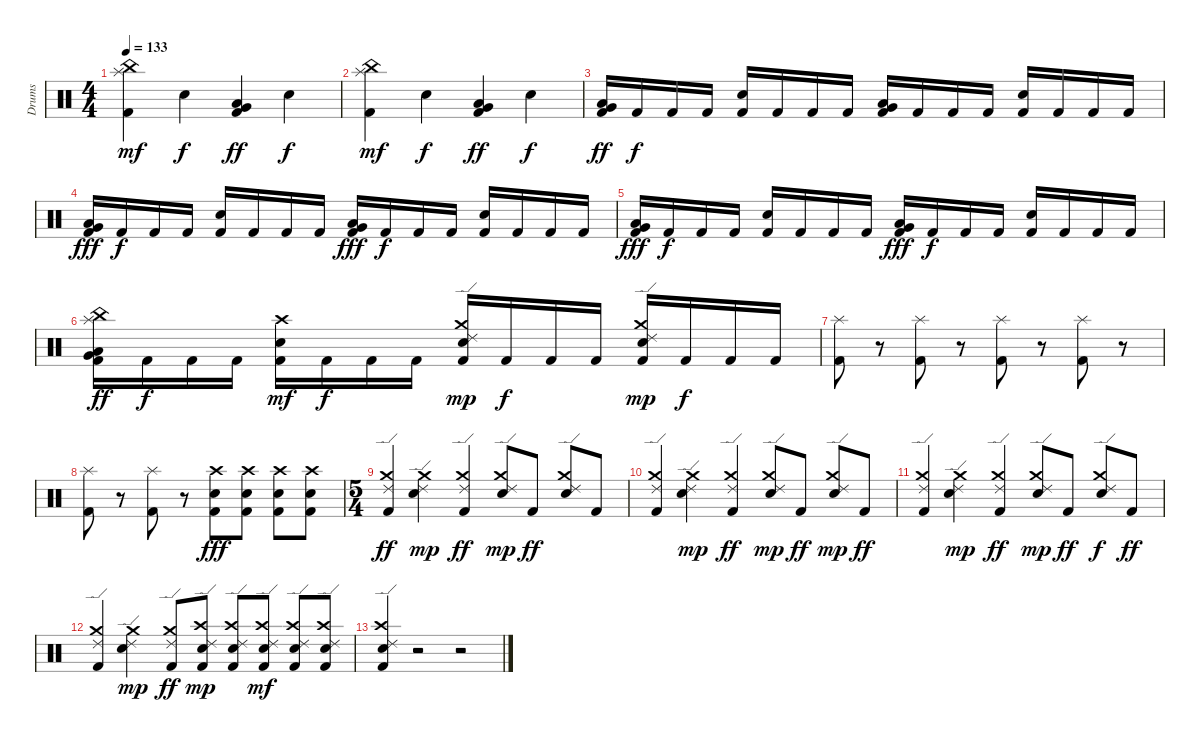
\track ("Drums" "Drums") {instrument percussion}
\staff {score}
\articulation defaults
\ts (4 4)
\tempo 133
\clef neutral
\ks c
("Splash (hit)" "China (hit)" "Kick (hit) 2").4{dy mf} "Electric Snare (hit)".4{dy f} ("Very Low Tom (hit)" "Low Floor Tom (hit)" "Kick (hit) 2").4{dy ff} "Electric Snare (hit)".4{dy f} |
("Splash (hit)" "China (hit)" "Kick (hit) 2").4{dy mf} "Electric Snare (hit)".4{dy f} ("Very Low Tom (hit)" "Low Floor Tom (hit)" "Kick (hit) 2").4{dy ff} "Electric Snare (hit)".4{dy f} |
("Very Low Tom (hit)" "Low Floor Tom (hit)" "Kick (hit) 2").16{dy ff} "Kick (hit) 2".16{dy f} "Kick (hit) 2".16 "Kick (hit) 2".16 ("Electric Snare (hit)" "Kick (hit) 2").16 "Kick (hit) 2".16 "Kick (hit) 2".16 "Kick (hit) 2".16 ("Very Low Tom (hit)" "Low Floor Tom (hit)" "Kick (hit) 2").16 "Kick (hit) 2".16 "Kick (hit) 2".16 "Kick (hit) 2".16 ("Electric Snare (hit)" "Kick (hit) 2").16 "Kick (hit) 2".16 "Kick (hit) 2".16 "Kick (hit) 2".16 |
("Very Low Tom (hit)" "Low Floor Tom (hit)" "Kick (hit) 2").16{dy fff} "Kick (hit) 2".16{dy f} "Kick (hit) 2".16 "Kick (hit) 2".16 ("Electric Snare (hit)" "Kick (hit) 2").16 "Kick (hit) 2".16 "Kick (hit) 2".16 "Kick (hit) 2".16 ("Very Low Tom (hit)" "Low Floor Tom (hit)" "Kick (hit) 2").16{dy fff} "Kick (hit) 2".16{dy f} "Kick (hit) 2".16 "Kick (hit) 2".16 ("Electric Snare (hit)" "Kick (hit) 2").16 "Kick (hit) 2".16 "Kick (hit) 2".16 "Kick (hit) 2".16 |
("Very Low Tom (hit)" "Low Floor Tom (hit)" "Kick (hit) 2").16{dy fff} "Kick (hit) 2".16{dy f} "Kick (hit) 2".16 "Kick (hit) 2".16 ("Electric Snare (hit)" "Kick (hit) 2").16 "Kick (hit) 2".16 "Kick (hit) 2".16 "Kick (hit) 2".16 ("Very Low Tom (hit)" "Low Floor Tom (hit)" "Kick (hit) 2").16{dy fff} "Kick (hit) 2".16{dy f} "Kick (hit) 2".16 "Kick (hit) 2".16 ("Electric Snare (hit)" "Kick (hit) 2").16 "Kick (hit) 2".16 "Kick (hit) 2".16 "Kick (hit) 2".16 |
("Splash (hit)" "China (hit)" "Very Low Tom (hit)" "Low Floor Tom (hit)" "Kick (hit) 2").16{dy ff} "Kick (hit) 2".16{dy f} "Kick (hit) 2".16 "Kick (hit) 2".16 ("Crash high (hit)" "Electric Snare (hit)" "Kick (hit) 2").16{dy mf} "Kick (hit) 2".16{dy f} "Kick (hit) 2".16 "Kick (hit) 2".16 ("Crash medium (hit)" "Ride (edge) 2" "Electric Snare (hit)" "Kick (hit) 2").16{dy mp} "Kick (hit) 2".16{dy f} "Kick (hit) 2".16 "Kick (hit) 2".16 ("Crash medium (hit)" "Ride (edge) 2" "Electric Snare (hit)" "Kick (hit) 2").16{dy mp} "Kick (hit) 2".16{dy f} "Kick (hit) 2".16 "Kick (hit) 2".16 |
("Splash (hit)" "Kick (hit) 2").8 r.8 ("Splash (hit)" "Kick (hit) 2").8 r.8 ("Splash (hit)" "Kick (hit) 2").8 r.8 ("Splash (hit)" "Kick (hit) 2").8 r.8 |
("Splash (hit)" "Kick (hit) 2").8 r.8 ("Splash (hit)" "Kick (hit) 2").8 r.8 ("Crash high (hit)" "Electric Snare (hit)" "Kick (hit) 2").8{dy fff} ("Crash high (hit)" "Electric Snare (hit)" "Kick (hit) 2").8 ("Crash high (hit)" "Electric Snare (hit)" "Kick (hit) 2").8 ("Crash high (hit)" "Electric Snare (hit)" "Kick (hit) 2").8 |
\ts (5 4)
("Crash medium (hit)" "Ride (edge) 2" "Kick (hit) 2").4{dy ff} ("Crash medium (hit)" "Ride (edge) 2" "Electric Snare (hit)").4{dy mp} ("Crash medium (hit)" "Ride (edge) 2" "Kick (hit) 2").4{dy ff} ("Crash medium (hit)" "Ride (edge) 2" "Electric Snare (hit)").8{dy mp} "Kick (hit) 2".8{dy ff} ("Crash medium (hit)" "Ride (edge) 2" "Electric Snare (hit)").8 "Kick (hit) 2".8 |
("Crash medium (hit)" "Ride (edge) 2" "Kick (hit) 2").4 ("Crash medium (hit)" "Ride (edge) 2" "Electric Snare (hit)").4{dy mp} ("Crash medium (hit)" "Ride (edge) 2" "Kick (hit) 2").4{dy ff} ("Crash medium (hit)" "Ride (edge) 2" "Electric Snare (hit)").8{dy mp} "Kick (hit) 2".8{dy ff} ("Crash medium (hit)" "Ride (edge) 2" "Electric Snare (hit)").8{dy mp} "Kick (hit) 2".8{dy ff} |
("Crash medium (hit)" "Ride (edge) 2" "Kick (hit) 2").4 ("Crash medium (hit)" "Ride (edge) 2" "Electric Snare (hit)").4{dy mp} ("Crash medium (hit)" "Ride (edge) 2" "Kick (hit) 2").4{dy ff} ("Crash medium (hit)" "Ride (edge) 2" "Electric Snare (hit)").8{dy mp} "Kick (hit) 2".8{dy ff} ("Crash medium (hit)" "Ride (edge) 2" "Electric Snare (hit)").8{dy f} "Kick (hit) 2".8{dy ff} |
("Crash medium (hit)" "Ride (edge) 2" "Kick (hit) 2").4 ("Crash medium (hit)" "Ride (edge) 2" "Electric Snare (hit)").4{dy mp} ("Crash medium (hit)" "Ride (edge) 2" "Kick (hit) 2").8{dy ff} ("Crash high (hit)" "Ride (edge) 2" "Electric Snare (hit)" "Kick (hit) 2").8{dy mp} ("Crash high (hit)" "Ride (edge) 2" "Electric Snare (hit)" "Kick (hit) 2").8 ("Crash high (hit)" "Ride (edge) 2" "Electric Snare (hit)" "Kick (hit) 2").8{dy mf} ("Crash high (hit)" "Ride (edge) 2" "Electric Snare (hit)" "Kick (hit) 2").8 ("Crash high (hit)" "Ride (edge) 2" "Electric Snare (hit)" "Kick (hit) 2").8 |
("Crash high (hit)" "Ride (edge) 2" "Electric Snare (hit)" "Kick (hit) 2").4 r.2 r.2
